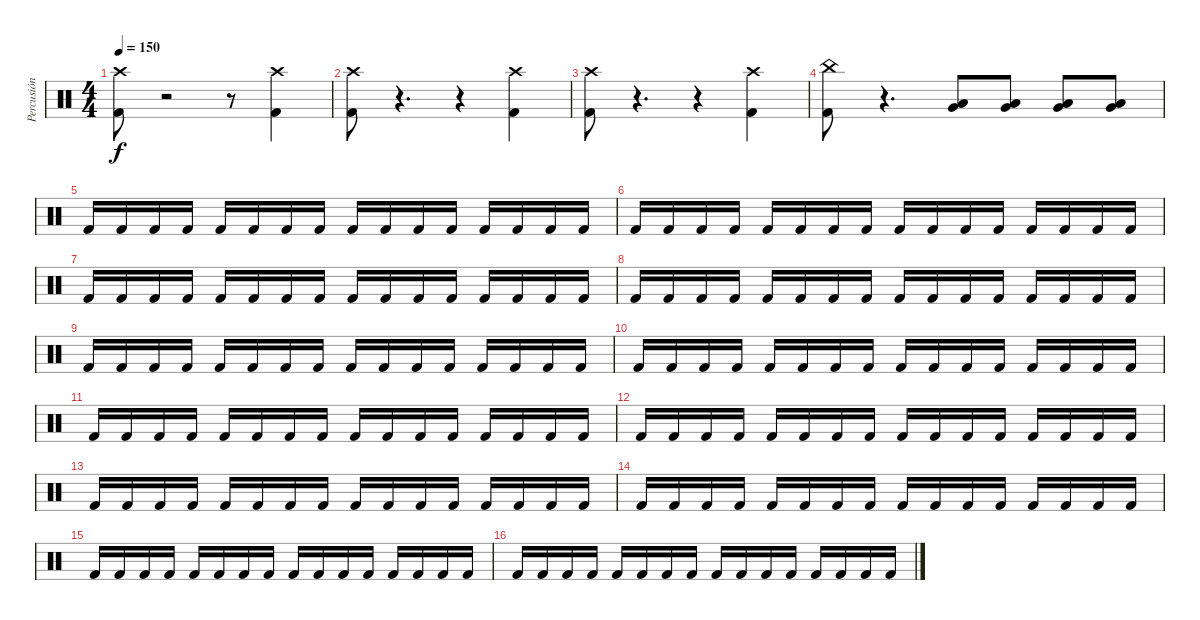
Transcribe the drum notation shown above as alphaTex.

\track ("Percusión" "Percusión") {instrument percussion}
\staff {score}
\articulation defaults
\ts (4 4)
\tempo 150
\clef neutral
\ks c
("Crash high (hit)" "Kick (hit) 2").8{dy f} r.2 r.8 ("Kick (hit) 2" "Crash high (hit)").4 |
("Kick (hit) 2" "Crash high (hit)").8 r.4{d} r.4 ("Crash high (hit)" "Kick (hit) 2").4 |
("Kick (hit) 2" "Crash high (hit)").8 r.4{d} r.4 ("Crash high (hit)" "Kick (hit) 2").4 |
("China (hit)" "Kick (hit) 2").8 r.4{d} ("Low Floor Tom (hit)" "Very Low Tom (hit)").8 ("Low Floor Tom (hit)" "Very Low Tom (hit)").8 ("Low Floor Tom (hit)" "Very Low Tom (hit)").8 ("Low Floor Tom (hit)" "Very Low Tom (hit)").8 |
"Kick (hit) 2".16 "Kick (hit) 2".16 "Kick (hit) 2".16 "Kick (hit) 2".16 "Kick (hit) 2".16 "Kick (hit) 2".16 "Kick (hit) 2".16 "Kick (hit) 2".16 "Kick (hit) 2".16 "Kick (hit) 2".16 "Kick (hit) 2".16 "Kick (hit) 2".16 "Kick (hit) 2".16 "Kick (hit) 2".16 "Kick (hit) 2".16 "Kick (hit) 2".16 |
"Kick (hit) 2".16 "Kick (hit) 2".16 "Kick (hit) 2".16 "Kick (hit) 2".16 "Kick (hit) 2".16 "Kick (hit) 2".16 "Kick (hit) 2".16 "Kick (hit) 2".16 "Kick (hit) 2".16 "Kick (hit) 2".16 "Kick (hit) 2".16 "Kick (hit) 2".16 "Kick (hit) 2".16 "Kick (hit) 2".16 "Kick (hit) 2".16 "Kick (hit) 2".16 |
"Kick (hit) 2".16 "Kick (hit) 2".16 "Kick (hit) 2".16 "Kick (hit) 2".16 "Kick (hit) 2".16 "Kick (hit) 2".16 "Kick (hit) 2".16 "Kick (hit) 2".16 "Kick (hit) 2".16 "Kick (hit) 2".16 "Kick (hit) 2".16 "Kick (hit) 2".16 "Kick (hit) 2".16 "Kick (hit) 2".16 "Kick (hit) 2".16 "Kick (hit) 2".16 |
"Kick (hit) 2".16 "Kick (hit) 2".16 "Kick (hit) 2".16 "Kick (hit) 2".16 "Kick (hit) 2".16 "Kick (hit) 2".16 "Kick (hit) 2".16 "Kick (hit) 2".16 "Kick (hit) 2".16 "Kick (hit) 2".16 "Kick (hit) 2".16 "Kick (hit) 2".16 "Kick (hit) 2".16 "Kick (hit) 2".16 "Kick (hit) 2".16 "Kick (hit) 2".16 |
"Kick (hit) 2".16 "Kick (hit) 2".16 "Kick (hit) 2".16 "Kick (hit) 2".16 "Kick (hit) 2".16 "Kick (hit) 2".16 "Kick (hit) 2".16 "Kick (hit) 2".16 "Kick (hit) 2".16 "Kick (hit) 2".16 "Kick (hit) 2".16 "Kick (hit) 2".16 "Kick (hit) 2".16 "Kick (hit) 2".16 "Kick (hit) 2".16 "Kick (hit) 2".16 |
"Kick (hit) 2".16 "Kick (hit) 2".16 "Kick (hit) 2".16 "Kick (hit) 2".16 "Kick (hit) 2".16 "Kick (hit) 2".16 "Kick (hit) 2".16 "Kick (hit) 2".16 "Kick (hit) 2".16 "Kick (hit) 2".16 "Kick (hit) 2".16 "Kick (hit) 2".16 "Kick (hit) 2".16 "Kick (hit) 2".16 "Kick (hit) 2".16 "Kick (hit) 2".16 |
"Kick (hit) 2".16 "Kick (hit) 2".16 "Kick (hit) 2".16 "Kick (hit) 2".16 "Kick (hit) 2".16 "Kick (hit) 2".16 "Kick (hit) 2".16 "Kick (hit) 2".16 "Kick (hit) 2".16 "Kick (hit) 2".16 "Kick (hit) 2".16 "Kick (hit) 2".16 "Kick (hit) 2".16 "Kick (hit) 2".16 "Kick (hit) 2".16 "Kick (hit) 2".16 |
"Kick (hit) 2".16 "Kick (hit) 2".16 "Kick (hit) 2".16 "Kick (hit) 2".16 "Kick (hit) 2".16 "Kick (hit) 2".16 "Kick (hit) 2".16 "Kick (hit) 2".16 "Kick (hit) 2".16 "Kick (hit) 2".16 "Kick (hit) 2".16 "Kick (hit) 2".16 "Kick (hit) 2".16 "Kick (hit) 2".16 "Kick (hit) 2".16 "Kick (hit) 2".16 |
"Kick (hit) 2".16 "Kick (hit) 2".16 "Kick (hit) 2".16 "Kick (hit) 2".16 "Kick (hit) 2".16 "Kick (hit) 2".16 "Kick (hit) 2".16 "Kick (hit) 2".16 "Kick (hit) 2".16 "Kick (hit) 2".16 "Kick (hit) 2".16 "Kick (hit) 2".16 "Kick (hit) 2".16 "Kick (hit) 2".16 "Kick (hit) 2".16 "Kick (hit) 2".16 |
"Kick (hit) 2".16 "Kick (hit) 2".16 "Kick (hit) 2".16 "Kick (hit) 2".16 "Kick (hit) 2".16 "Kick (hit) 2".16 "Kick (hit) 2".16 "Kick (hit) 2".16 "Kick (hit) 2".16 "Kick (hit) 2".16 "Kick (hit) 2".16 "Kick (hit) 2".16 "Kick (hit) 2".16 "Kick (hit) 2".16 "Kick (hit) 2".16 "Kick (hit) 2".16 |
"Kick (hit) 2".16 "Kick (hit) 2".16 "Kick (hit) 2".16 "Kick (hit) 2".16 "Kick (hit) 2".16 "Kick (hit) 2".16 "Kick (hit) 2".16 "Kick (hit) 2".16 "Kick (hit) 2".16 "Kick (hit) 2".16 "Kick (hit) 2".16 "Kick (hit) 2".16 "Kick (hit) 2".16 "Kick (hit) 2".16 "Kick (hit) 2".16 "Kick (hit) 2".16 |
"Kick (hit) 2".16 "Kick (hit) 2".16 "Kick (hit) 2".16 "Kick (hit) 2".16 "Kick (hit) 2".16 "Kick (hit) 2".16 "Kick (hit) 2".16 "Kick (hit) 2".16 "Kick (hit) 2".16 "Kick (hit) 2".16 "Kick (hit) 2".16 "Kick (hit) 2".16 "Kick (hit) 2".16 "Kick (hit) 2".16 "Kick (hit) 2".16 "Kick (hit) 2".16
